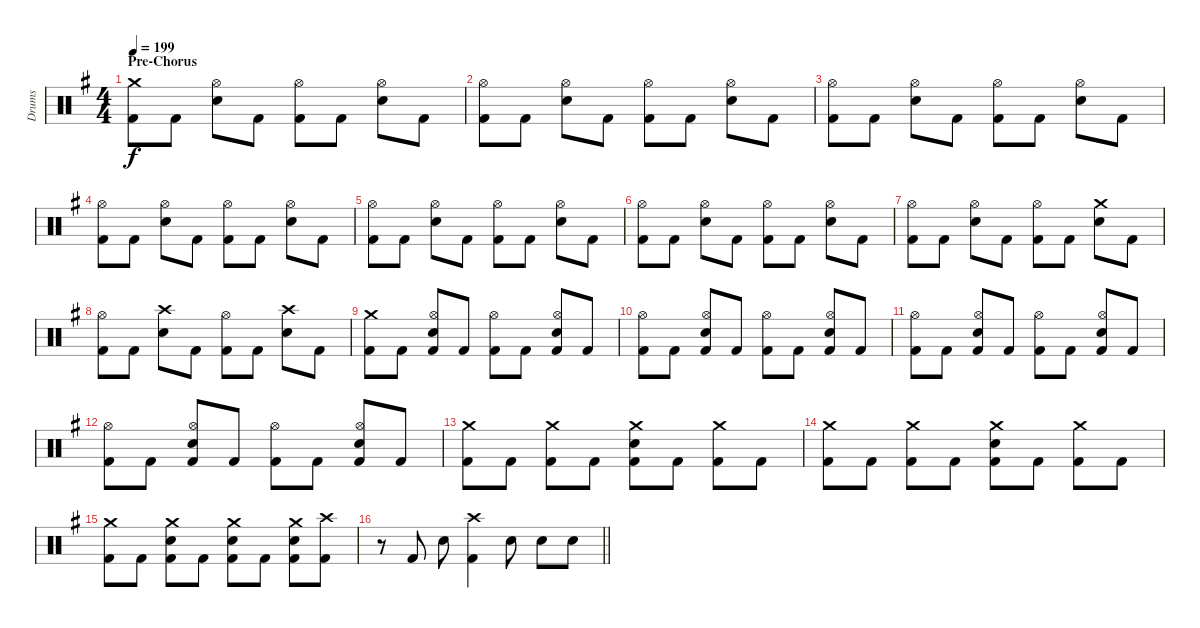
\track ("Drums" "Drums") {instrument percussion}
\staff {score}
\articulation defaults
\ts (4 4)
\section ("" "Pre-Chorus")
\tempo 199
\clef neutral
\ks eminor
("Crash medium (hit)" "Kick (hit) 2").8{dy f} "Kick (hit) 2".8 ("Hi-Hat (open)" "Electric Snare (hit)").8 "Kick (hit) 2".8 ("Hi-Hat (open)" "Kick (hit) 2").8 "Kick (hit) 2".8 ("Hi-Hat (open)" "Electric Snare (hit)").8 "Kick (hit) 2".8 |
("Hi-Hat (open)" "Kick (hit) 2").8 "Kick (hit) 2".8 ("Hi-Hat (open)" "Electric Snare (hit)").8 "Kick (hit) 2".8 ("Hi-Hat (open)" "Kick (hit) 2").8 "Kick (hit) 2".8 ("Hi-Hat (open)" "Electric Snare (hit)").8 "Kick (hit) 2".8 |
("Hi-Hat (open)" "Kick (hit) 2").8 "Kick (hit) 2".8 ("Hi-Hat (open)" "Electric Snare (hit)").8 "Kick (hit) 2".8 ("Hi-Hat (open)" "Kick (hit) 2").8 "Kick (hit) 2".8 ("Hi-Hat (open)" "Electric Snare (hit)").8 "Kick (hit) 2".8 |
("Hi-Hat (open)" "Kick (hit) 2").8 "Kick (hit) 2".8 ("Hi-Hat (open)" "Electric Snare (hit)").8 "Kick (hit) 2".8 ("Hi-Hat (open)" "Kick (hit) 2").8 "Kick (hit) 2".8 ("Hi-Hat (open)" "Electric Snare (hit)").8 "Kick (hit) 2".8 |
("Hi-Hat (open)" "Kick (hit) 2").8 "Kick (hit) 2".8 ("Hi-Hat (open)" "Electric Snare (hit)").8 "Kick (hit) 2".8 ("Hi-Hat (open)" "Kick (hit) 2").8 "Kick (hit) 2".8 ("Hi-Hat (open)" "Electric Snare (hit)").8 "Kick (hit) 2".8 |
("Hi-Hat (open)" "Kick (hit) 2").8 "Kick (hit) 2".8 ("Hi-Hat (open)" "Electric Snare (hit)").8 "Kick (hit) 2".8 ("Hi-Hat (open)" "Kick (hit) 2").8 "Kick (hit) 2".8 ("Hi-Hat (open)" "Electric Snare (hit)").8 "Kick (hit) 2".8 |
("Hi-Hat (open)" "Kick (hit) 2").8 "Kick (hit) 2".8 ("Hi-Hat (open)" "Electric Snare (hit)").8 "Kick (hit) 2".8 ("Hi-Hat (open)" "Kick (hit) 2").8 "Kick (hit) 2".8 ("Crash medium (hit)" "Electric Snare (hit)").8 "Kick (hit) 2".8 |
("Hi-Hat (open)" "Kick (hit) 2").8 "Kick (hit) 2".8 ("Crash high (hit)" "Electric Snare (hit)").8 "Kick (hit) 2".8 ("Hi-Hat (open)" "Kick (hit) 2").8 "Kick (hit) 2".8 ("Crash high (hit)" "Electric Snare (hit)").8 "Kick (hit) 2".8 |
("Crash medium (hit)" "Kick (hit) 2").8 "Kick (hit) 2".8 ("Hi-Hat (open)" "Electric Snare (hit)" "Kick (hit) 2").8 "Kick (hit) 2".8 ("Hi-Hat (open)" "Kick (hit) 2").8 "Kick (hit) 2".8 ("Hi-Hat (open)" "Electric Snare (hit)" "Kick (hit) 2").8 "Kick (hit) 2".8 |
("Hi-Hat (open)" "Kick (hit) 2").8 "Kick (hit) 2".8 ("Hi-Hat (open)" "Electric Snare (hit)" "Kick (hit) 2").8 "Kick (hit) 2".8 ("Hi-Hat (open)" "Kick (hit) 2").8 "Kick (hit) 2".8 ("Hi-Hat (open)" "Electric Snare (hit)" "Kick (hit) 2").8 "Kick (hit) 2".8 |
("Hi-Hat (open)" "Kick (hit) 2").8 "Kick (hit) 2".8 ("Hi-Hat (open)" "Electric Snare (hit)" "Kick (hit) 2").8 "Kick (hit) 2".8 ("Hi-Hat (open)" "Kick (hit) 2").8 "Kick (hit) 2".8 ("Hi-Hat (open)" "Electric Snare (hit)" "Kick (hit) 2").8 "Kick (hit) 2".8 |
("Hi-Hat (open)" "Kick (hit) 2").8 "Kick (hit) 2".8 ("Hi-Hat (open)" "Electric Snare (hit)" "Kick (hit) 2").8 "Kick (hit) 2".8 ("Hi-Hat (open)" "Kick (hit) 2").8 "Kick (hit) 2".8 ("Hi-Hat (open)" "Electric Snare (hit)" "Kick (hit) 2").8 "Kick (hit) 2".8 |
("Crash medium (hit)" "Kick (hit) 2").8 "Kick (hit) 2".8 ("Crash medium (hit)" "Kick (hit) 2").8 "Kick (hit) 2".8 ("Crash medium (hit)" "Electric Snare (hit)" "Kick (hit) 2").8 "Kick (hit) 2".8 ("Crash medium (hit)" "Kick (hit) 2").8 "Kick (hit) 2".8 |
("Crash medium (hit)" "Kick (hit) 2").8 "Kick (hit) 2".8 ("Crash medium (hit)" "Kick (hit) 2").8 "Kick (hit) 2".8 ("Crash medium (hit)" "Electric Snare (hit)" "Kick (hit) 2").8 "Kick (hit) 2".8 ("Crash medium (hit)" "Kick (hit) 2").8 "Kick (hit) 2".8 |
("Crash medium (hit)" "Kick (hit) 2").8 "Kick (hit) 2".8 ("Crash medium (hit)" "Electric Snare (hit)" "Kick (hit) 2").8 "Kick (hit) 2".8 ("Crash medium (hit)" "Electric Snare (hit)" "Kick (hit) 2").8 "Kick (hit) 2".8 ("Crash medium (hit)" "Electric Snare (hit)" "Kick (hit) 2").8 ("Crash high (hit)" "Kick (hit) 2").8 |
\barLineRight lightlight
r.8 "Kick (hit) 2".8 "Electric Snare (hit)".8 ("Crash high (hit)" "Kick (hit) 2").4 "Electric Snare (hit)".8 "Electric Snare (hit)".8 "Electric Snare (hit)".8
